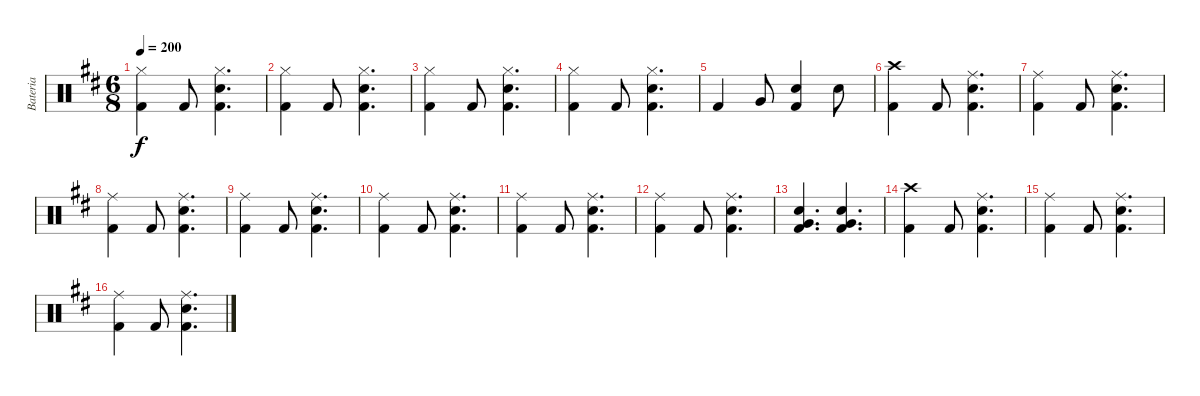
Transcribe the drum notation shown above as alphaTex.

\track ("Bateria" "Bateria") {instrument percussion}
\staff {score}
\articulation defaults
\ts (6 8)
\tempo 200
\clef neutral
\ks bminor
("Hi-Hat (closed)" "Kick (hit) 2").4{dy f} "Kick (hit) 2".8 ("Hi-Hat (closed)" "Electric Snare (hit)" "Kick (hit) 2").4{d} |
("Hi-Hat (closed)" "Kick (hit) 2").4 "Kick (hit) 2".8 ("Hi-Hat (closed)" "Electric Snare (hit)" "Kick (hit) 2").4{d} |
("Hi-Hat (closed)" "Kick (hit) 2").4 "Kick (hit) 2".8 ("Hi-Hat (closed)" "Electric Snare (hit)" "Kick (hit) 2").4{d} |
("Hi-Hat (closed)" "Kick (hit) 2").4 "Kick (hit) 2".8 ("Hi-Hat (closed)" "Electric Snare (hit)" "Kick (hit) 2").4{d} |
"Kick (hit) 2".4 "Very Low Tom (hit)".8 ("Electric Snare (hit)" "Kick (hit) 2").4 "Electric Snare (hit)".8 |
("Crash high (hit)" "Kick (hit) 2").4 "Kick (hit) 2".8 ("Ride (middle)" "Electric Snare (hit)" "Kick (hit) 2").4{d} |
("Ride (middle)" "Kick (hit) 2").4 "Kick (hit) 2".8 ("Ride (middle)" "Electric Snare (hit)" "Kick (hit) 2").4{d} |
("Ride (middle)" "Kick (hit) 2").4 "Kick (hit) 2".8 ("Ride (middle)" "Electric Snare (hit)" "Kick (hit) 2").4{d} |
("Ride (middle)" "Kick (hit) 2").4 "Kick (hit) 2".8 ("Ride (middle)" "Electric Snare (hit)" "Kick (hit) 2").4{d} |
("Ride (middle)" "Kick (hit) 2").4 "Kick (hit) 2".8 ("Ride (middle)" "Electric Snare (hit)" "Kick (hit) 2").4{d} |
("Ride (middle)" "Kick (hit) 2").4 "Kick (hit) 2".8 ("Ride (middle)" "Electric Snare (hit)" "Kick (hit) 2").4{d} |
("Ride (middle)" "Kick (hit) 2").4 "Kick (hit) 2".8 ("Ride (middle)" "Electric Snare (hit)" "Kick (hit) 2").4{d} |
("Very Low Tom (hit)" "Electric Snare (hit)" "Kick (hit) 2").4{d} ("Very Low Tom (hit)" "Electric Snare (hit)" "Kick (hit) 2").4{d} |
("Crash high (hit)" "Kick (hit) 2").4 "Kick (hit) 2".8 ("Ride (middle)" "Electric Snare (hit)" "Kick (hit) 2").4{d} |
("Ride (middle)" "Kick (hit) 2").4 "Kick (hit) 2".8 ("Ride (middle)" "Electric Snare (hit)" "Kick (hit) 2").4{d} |
("Ride (middle)" "Kick (hit) 2").4 "Kick (hit) 2".8 ("Ride (middle)" "Electric Snare (hit)" "Kick (hit) 2").4{d}
